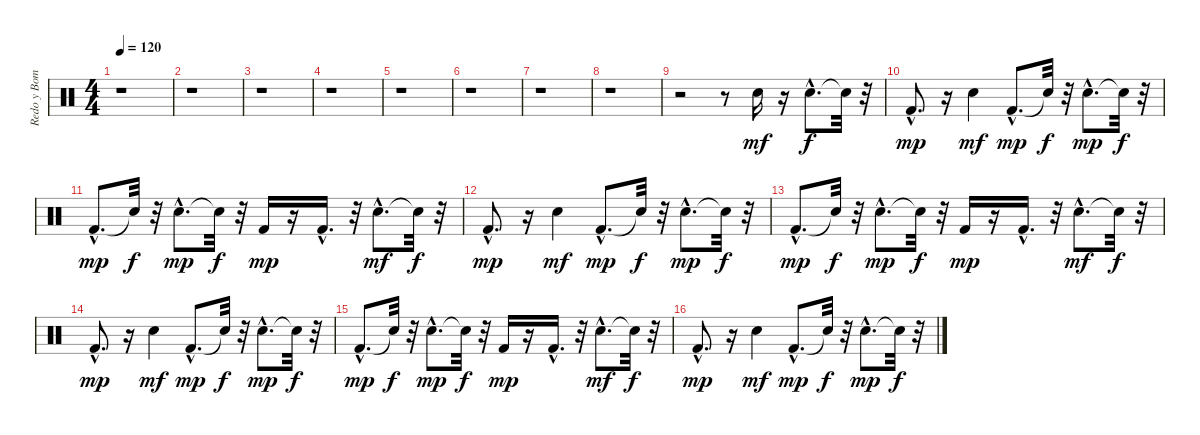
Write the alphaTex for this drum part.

\track ("Redo y Bombo" "Redo y Bom") {instrument percussion}
\staff {score}
\articulation defaults
\ts (4 4)
\tempo 120
\clef neutral
\ks c
r.1{dy mf} |
r.1 |
r.1 |
r.1 |
r.1 |
r.1 |
r.1 |
r.1 |
r.2 r.8 "Snare (hit) 2".16 r.16 "Snare (hit) 2"{hac}.8{d dy f} "Snare (hit)"{t}.32 r.32 |
"Kick (hit) 2"{hac}.8{d dy mp} r.16 "Snare (hit) 2".4{dy mf} "Kick (hit) 2"{hac}.8{d dy mp} "Snare (hit)"{t}.32{dy f} r.32 "Snare (hit) 2"{hac}.8{d dy mp} "Snare (hit)"{t}.32{dy f} r.32 |
"Kick (hit) 2"{hac}.8{d dy mp} "Snare (hit)"{t}.32{dy f} r.32 "Snare (hit) 2"{hac}.8{d dy mp} "Snare (hit)"{t}.32{dy f} r.32 "Kick (hit) 2".16{dy mp} r.16 "Kick (hit) 2"{hac}.16{d} r.32 "Snare (hit) 2"{hac}.8{d dy mf} "Snare (hit)"{t}.32{dy f} r.32 |
"Kick (hit) 2"{hac}.8{d dy mp} r.16 "Snare (hit) 2".4{dy mf} "Kick (hit) 2"{hac}.8{d dy mp} "Snare (hit)"{t}.32{dy f} r.32 "Snare (hit) 2"{hac}.8{d dy mp} "Snare (hit)"{t}.32{dy f} r.32 |
"Kick (hit) 2"{hac}.8{d dy mp} "Snare (hit)"{t}.32{dy f} r.32 "Snare (hit) 2"{hac}.8{d dy mp} "Snare (hit)"{t}.32{dy f} r.32 "Kick (hit) 2".16{dy mp} r.16 "Kick (hit) 2"{hac}.16{d} r.32 "Snare (hit) 2"{hac}.8{d dy mf} "Snare (hit)"{t}.32{dy f} r.32 |
"Kick (hit) 2"{hac}.8{d dy mp} r.16 "Snare (hit) 2".4{dy mf} "Kick (hit) 2"{hac}.8{d dy mp} "Snare (hit)"{t}.32{dy f} r.32 "Snare (hit) 2"{hac}.8{d dy mp} "Snare (hit)"{t}.32{dy f} r.32 |
"Kick (hit) 2"{hac}.8{d dy mp} "Snare (hit)"{t}.32{dy f} r.32 "Snare (hit) 2"{hac}.8{d dy mp} "Snare (hit)"{t}.32{dy f} r.32 "Kick (hit) 2".16{dy mp} r.16 "Kick (hit) 2"{hac}.16{d} r.32 "Snare (hit) 2"{hac}.8{d dy mf} "Snare (hit)"{t}.32{dy f} r.32 |
"Kick (hit) 2"{hac}.8{d dy mp} r.16 "Snare (hit) 2".4{dy mf} "Kick (hit) 2"{hac}.8{d dy mp} "Snare (hit)"{t}.32{dy f} r.32 "Snare (hit) 2"{hac}.8{d dy mp} "Snare (hit)"{t}.32{dy f} r.32
